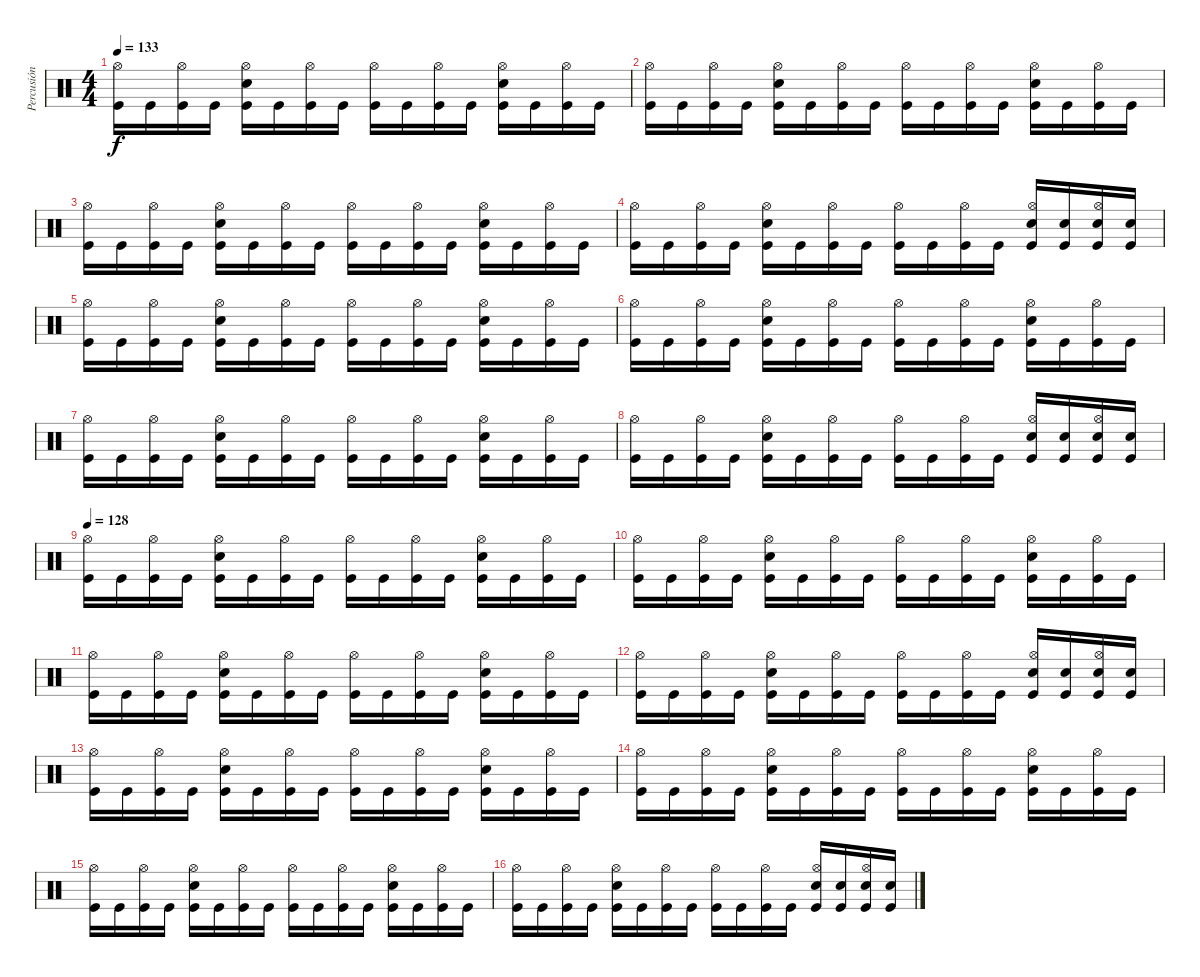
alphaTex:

\track ("Percusión" "Percusión") {instrument percussion}
\staff {score}
\articulation defaults
\ts (4 4)
\tempo 133
\clef neutral
\ks c
("Kick (hit)" "Hi-Hat (open)").16{dy f} "Kick (hit)".16 ("Kick (hit)" "Hi-Hat (open)").16 "Kick (hit)".16 ("Kick (hit)" "Hi-Hat (open)" "Snare (hit) 2").16 "Kick (hit)".16 ("Kick (hit)" "Hi-Hat (open)").16 "Kick (hit)".16 ("Kick (hit)" "Hi-Hat (open)").16 "Kick (hit)".16 ("Kick (hit)" "Hi-Hat (open)").16 "Kick (hit)".16 ("Kick (hit)" "Hi-Hat (open)" "Snare (hit) 2").16 "Kick (hit)".16 ("Kick (hit)" "Hi-Hat (open)").16 "Kick (hit)".16 |
("Kick (hit)" "Hi-Hat (open)").16 "Kick (hit)".16 ("Kick (hit)" "Hi-Hat (open)").16 "Kick (hit)".16 ("Kick (hit)" "Hi-Hat (open)" "Snare (hit) 2").16 "Kick (hit)".16 ("Kick (hit)" "Hi-Hat (open)").16 "Kick (hit)".16 ("Kick (hit)" "Hi-Hat (open)").16 "Kick (hit)".16 ("Kick (hit)" "Hi-Hat (open)").16 "Kick (hit)".16 ("Kick (hit)" "Hi-Hat (open)" "Snare (hit) 2").16 "Kick (hit)".16 ("Kick (hit)" "Hi-Hat (open)").16 "Kick (hit)".16 |
("Kick (hit)" "Hi-Hat (open)").16 "Kick (hit)".16 ("Kick (hit)" "Hi-Hat (open)").16 "Kick (hit)".16 ("Kick (hit)" "Hi-Hat (open)" "Snare (hit) 2").16 "Kick (hit)".16 ("Kick (hit)" "Hi-Hat (open)").16 "Kick (hit)".16 ("Kick (hit)" "Hi-Hat (open)").16 "Kick (hit)".16 ("Kick (hit)" "Hi-Hat (open)").16 "Kick (hit)".16 ("Kick (hit)" "Hi-Hat (open)" "Snare (hit) 2").16 "Kick (hit)".16 ("Kick (hit)" "Hi-Hat (open)").16 "Kick (hit)".16 |
("Kick (hit)" "Hi-Hat (open)").16 "Kick (hit)".16 ("Kick (hit)" "Hi-Hat (open)").16 "Kick (hit)".16 ("Kick (hit)" "Hi-Hat (open)" "Snare (hit) 2").16 "Kick (hit)".16 ("Kick (hit)" "Hi-Hat (open)").16 "Kick (hit)".16 ("Kick (hit)" "Hi-Hat (open)").16 "Kick (hit)".16 ("Kick (hit)" "Hi-Hat (open)").16 "Kick (hit)".16 ("Kick (hit)" "Hi-Hat (open)" "Snare (hit) 2").16 ("Kick (hit)" "Snare (hit) 2").16 ("Kick (hit)" "Hi-Hat (open)" "Snare (hit) 2").16 ("Kick (hit)" "Snare (hit) 2").16 |
("Kick (hit)" "Hi-Hat (open)").16 "Kick (hit)".16 ("Kick (hit)" "Hi-Hat (open)").16 "Kick (hit)".16 ("Kick (hit)" "Hi-Hat (open)" "Snare (hit) 2").16 "Kick (hit)".16 ("Kick (hit)" "Hi-Hat (open)").16 "Kick (hit)".16 ("Kick (hit)" "Hi-Hat (open)").16 "Kick (hit)".16 ("Kick (hit)" "Hi-Hat (open)").16 "Kick (hit)".16 ("Kick (hit)" "Hi-Hat (open)" "Snare (hit) 2").16 "Kick (hit)".16 ("Kick (hit)" "Hi-Hat (open)").16 "Kick (hit)".16 |
("Kick (hit)" "Hi-Hat (open)").16 "Kick (hit)".16 ("Kick (hit)" "Hi-Hat (open)").16 "Kick (hit)".16 ("Kick (hit)" "Hi-Hat (open)" "Snare (hit) 2").16 "Kick (hit)".16 ("Kick (hit)" "Hi-Hat (open)").16 "Kick (hit)".16 ("Kick (hit)" "Hi-Hat (open)").16 "Kick (hit)".16 ("Kick (hit)" "Hi-Hat (open)").16 "Kick (hit)".16 ("Kick (hit)" "Hi-Hat (open)" "Snare (hit) 2").16 "Kick (hit)".16 ("Kick (hit)" "Hi-Hat (open)").16 "Kick (hit)".16 |
("Kick (hit)" "Hi-Hat (open)").16 "Kick (hit)".16 ("Kick (hit)" "Hi-Hat (open)").16 "Kick (hit)".16 ("Kick (hit)" "Hi-Hat (open)" "Snare (hit) 2").16 "Kick (hit)".16 ("Kick (hit)" "Hi-Hat (open)").16 "Kick (hit)".16 ("Kick (hit)" "Hi-Hat (open)").16 "Kick (hit)".16 ("Kick (hit)" "Hi-Hat (open)").16 "Kick (hit)".16 ("Kick (hit)" "Hi-Hat (open)" "Snare (hit) 2").16 "Kick (hit)".16 ("Kick (hit)" "Hi-Hat (open)").16 "Kick (hit)".16 |
("Kick (hit)" "Hi-Hat (open)").16 "Kick (hit)".16 ("Kick (hit)" "Hi-Hat (open)").16 "Kick (hit)".16 ("Kick (hit)" "Hi-Hat (open)" "Snare (hit) 2").16 "Kick (hit)".16 ("Kick (hit)" "Hi-Hat (open)").16 "Kick (hit)".16 ("Kick (hit)" "Hi-Hat (open)").16 "Kick (hit)".16 ("Kick (hit)" "Hi-Hat (open)").16 "Kick (hit)".16 ("Kick (hit)" "Hi-Hat (open)" "Snare (hit) 2").16 ("Kick (hit)" "Snare (hit) 2").16 ("Kick (hit)" "Hi-Hat (open)" "Snare (hit) 2").16 ("Kick (hit)" "Snare (hit) 2").16 |
\tempo 128
("Kick (hit)" "Hi-Hat (open)").16 "Kick (hit)".16 ("Kick (hit)" "Hi-Hat (open)").16 "Kick (hit)".16 ("Kick (hit)" "Hi-Hat (open)" "Snare (hit) 2").16 "Kick (hit)".16 ("Kick (hit)" "Hi-Hat (open)").16 "Kick (hit)".16 ("Kick (hit)" "Hi-Hat (open)").16 "Kick (hit)".16 ("Kick (hit)" "Hi-Hat (open)").16 "Kick (hit)".16 ("Kick (hit)" "Hi-Hat (open)" "Snare (hit) 2").16 "Kick (hit)".16 ("Kick (hit)" "Hi-Hat (open)").16 "Kick (hit)".16 |
("Kick (hit)" "Hi-Hat (open)").16 "Kick (hit)".16 ("Kick (hit)" "Hi-Hat (open)").16 "Kick (hit)".16 ("Kick (hit)" "Hi-Hat (open)" "Snare (hit) 2").16 "Kick (hit)".16 ("Kick (hit)" "Hi-Hat (open)").16 "Kick (hit)".16 ("Kick (hit)" "Hi-Hat (open)").16 "Kick (hit)".16 ("Kick (hit)" "Hi-Hat (open)").16 "Kick (hit)".16 ("Kick (hit)" "Hi-Hat (open)" "Snare (hit) 2").16 "Kick (hit)".16 ("Kick (hit)" "Hi-Hat (open)").16 "Kick (hit)".16 |
("Kick (hit)" "Hi-Hat (open)").16 "Kick (hit)".16 ("Kick (hit)" "Hi-Hat (open)").16 "Kick (hit)".16 ("Kick (hit)" "Hi-Hat (open)" "Snare (hit) 2").16 "Kick (hit)".16 ("Kick (hit)" "Hi-Hat (open)").16 "Kick (hit)".16 ("Kick (hit)" "Hi-Hat (open)").16 "Kick (hit)".16 ("Kick (hit)" "Hi-Hat (open)").16 "Kick (hit)".16 ("Kick (hit)" "Hi-Hat (open)" "Snare (hit) 2").16 "Kick (hit)".16 ("Kick (hit)" "Hi-Hat (open)").16 "Kick (hit)".16 |
("Kick (hit)" "Hi-Hat (open)").16 "Kick (hit)".16 ("Kick (hit)" "Hi-Hat (open)").16 "Kick (hit)".16 ("Kick (hit)" "Hi-Hat (open)" "Snare (hit) 2").16 "Kick (hit)".16 ("Kick (hit)" "Hi-Hat (open)").16 "Kick (hit)".16 ("Kick (hit)" "Hi-Hat (open)").16 "Kick (hit)".16 ("Kick (hit)" "Hi-Hat (open)").16 "Kick (hit)".16 ("Kick (hit)" "Hi-Hat (open)" "Snare (hit) 2").16 ("Kick (hit)" "Snare (hit) 2").16 ("Kick (hit)" "Hi-Hat (open)" "Snare (hit) 2").16 ("Kick (hit)" "Snare (hit) 2").16 |
("Kick (hit)" "Hi-Hat (open)").16 "Kick (hit)".16 ("Kick (hit)" "Hi-Hat (open)").16 "Kick (hit)".16 ("Kick (hit)" "Hi-Hat (open)" "Snare (hit) 2").16 "Kick (hit)".16 ("Kick (hit)" "Hi-Hat (open)").16 "Kick (hit)".16 ("Kick (hit)" "Hi-Hat (open)").16 "Kick (hit)".16 ("Kick (hit)" "Hi-Hat (open)").16 "Kick (hit)".16 ("Kick (hit)" "Hi-Hat (open)" "Snare (hit) 2").16 "Kick (hit)".16 ("Kick (hit)" "Hi-Hat (open)").16 "Kick (hit)".16 |
("Kick (hit)" "Hi-Hat (open)").16 "Kick (hit)".16 ("Kick (hit)" "Hi-Hat (open)").16 "Kick (hit)".16 ("Kick (hit)" "Hi-Hat (open)" "Snare (hit) 2").16 "Kick (hit)".16 ("Kick (hit)" "Hi-Hat (open)").16 "Kick (hit)".16 ("Kick (hit)" "Hi-Hat (open)").16 "Kick (hit)".16 ("Kick (hit)" "Hi-Hat (open)").16 "Kick (hit)".16 ("Kick (hit)" "Hi-Hat (open)" "Snare (hit) 2").16 "Kick (hit)".16 ("Kick (hit)" "Hi-Hat (open)").16 "Kick (hit)".16 |
("Kick (hit)" "Hi-Hat (open)").16 "Kick (hit)".16 ("Kick (hit)" "Hi-Hat (open)").16 "Kick (hit)".16 ("Kick (hit)" "Hi-Hat (open)" "Snare (hit) 2").16 "Kick (hit)".16 ("Kick (hit)" "Hi-Hat (open)").16 "Kick (hit)".16 ("Kick (hit)" "Hi-Hat (open)").16 "Kick (hit)".16 ("Kick (hit)" "Hi-Hat (open)").16 "Kick (hit)".16 ("Kick (hit)" "Hi-Hat (open)" "Snare (hit) 2").16 "Kick (hit)".16 ("Kick (hit)" "Hi-Hat (open)").16 "Kick (hit)".16 |
("Kick (hit)" "Hi-Hat (open)").16 "Kick (hit)".16 ("Kick (hit)" "Hi-Hat (open)").16 "Kick (hit)".16 ("Kick (hit)" "Hi-Hat (open)" "Snare (hit) 2").16 "Kick (hit)".16 ("Kick (hit)" "Hi-Hat (open)").16 "Kick (hit)".16 ("Kick (hit)" "Hi-Hat (open)").16 "Kick (hit)".16 ("Kick (hit)" "Hi-Hat (open)").16 "Kick (hit)".16 ("Kick (hit)" "Hi-Hat (open)" "Snare (hit) 2").16 ("Kick (hit)" "Snare (hit) 2").16 ("Kick (hit)" "Hi-Hat (open)" "Snare (hit) 2").16 ("Kick (hit)" "Snare (hit) 2").16
